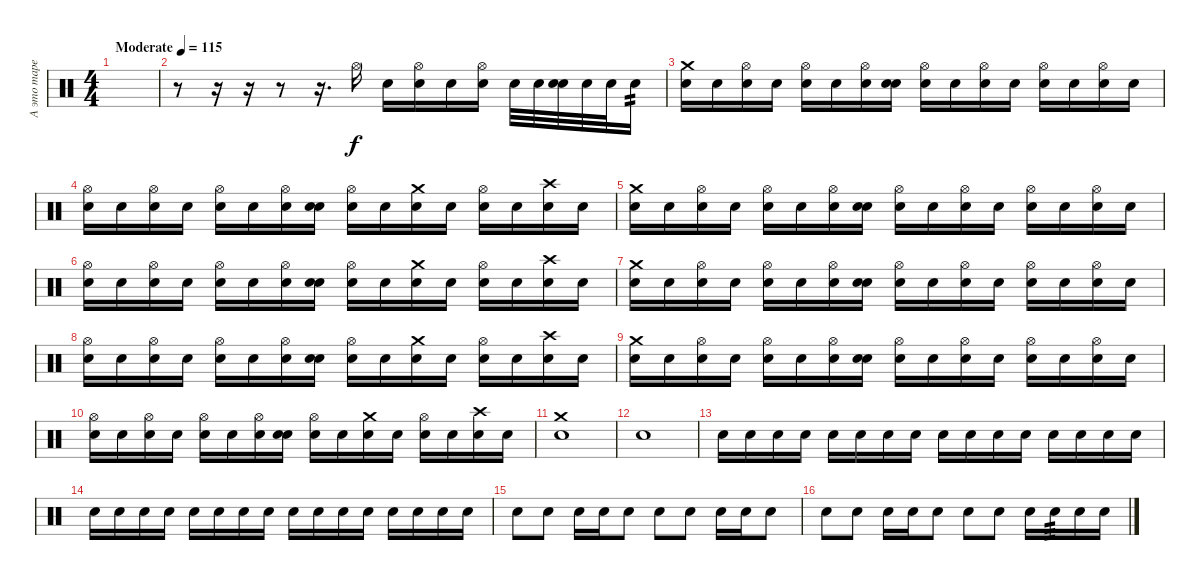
\track ("А это тарелки уже" "А это таре") {instrument percussion}
\staff {score}
\articulation defaults
\ts (4 4)
\tempo (115 "Moderate")
\clef neutral
\ks c
|
r.8 r.16 r.16 r.8 r.16{d} "Hi-Hat (open)".16 "Snare (hit)".16 ("Hi-Hat (open)" "Snare (hit)").16 "Snare (hit)".16 ("Hi-Hat (open)" "Snare (hit)").16 "Snare (hit)".32 "Snare (hit)".32 ("Snare (hit)" "Snare (hit)").32 "Snare (hit)".32 "Snare (hit)".32 "Snare (hit)".16{tp 2} |
("Crash medium (hit)" "Snare (hit)").16 "Snare (hit)".16 ("Hi-Hat (open)" "Snare (hit)").16 "Snare (hit)".16 ("Hi-Hat (open)" "Snare (hit)").16 "Snare (hit)".16 ("Hi-Hat (open)" "Snare (hit)").16 ("Snare (hit)" "Snare (hit)").16 ("Hi-Hat (open)" "Snare (hit)").16 "Snare (hit)".16 ("Hi-Hat (open)" "Snare (hit)").16 "Snare (hit)".16 ("Hi-Hat (open)" "Snare (hit)").16 "Snare (hit)".16 ("Hi-Hat (open)" "Snare (hit)").16 "Snare (hit)".16 |
("Hi-Hat (open)" "Snare (hit)").16 "Snare (hit)".16 ("Hi-Hat (open)" "Snare (hit)").16 "Snare (hit)".16 ("Hi-Hat (open)" "Snare (hit)").16 "Snare (hit)".16 ("Hi-Hat (open)" "Snare (hit)").16 ("Snare (hit)" "Snare (hit)").16 ("Hi-Hat (open)" "Snare (hit)").16 "Snare (hit)".16 ("Crash medium (hit)" "Snare (hit)").16 "Snare (hit)".16 ("Hi-Hat (open)" "Snare (hit)").16 "Snare (hit)".16 ("Crash high (hit)" "Snare (hit)").16 "Snare (hit)".16 |
("Crash medium (hit)" "Snare (hit)").16 "Snare (hit)".16 ("Hi-Hat (open)" "Snare (hit)").16 "Snare (hit)".16 ("Hi-Hat (open)" "Snare (hit)").16 "Snare (hit)".16 ("Hi-Hat (open)" "Snare (hit)").16 ("Snare (hit)" "Snare (hit)").16 ("Hi-Hat (open)" "Snare (hit)").16 "Snare (hit)".16 ("Hi-Hat (open)" "Snare (hit)").16 "Snare (hit)".16 ("Hi-Hat (open)" "Snare (hit)").16 "Snare (hit)".16 ("Hi-Hat (open)" "Snare (hit)").16 "Snare (hit)".16 |
("Hi-Hat (open)" "Snare (hit)").16 "Snare (hit)".16 ("Hi-Hat (open)" "Snare (hit)").16 "Snare (hit)".16 ("Hi-Hat (open)" "Snare (hit)").16 "Snare (hit)".16 ("Hi-Hat (open)" "Snare (hit)").16 ("Snare (hit)" "Snare (hit)").16 ("Hi-Hat (open)" "Snare (hit)").16 "Snare (hit)".16 ("Crash medium (hit)" "Snare (hit)").16 "Snare (hit)".16 ("Hi-Hat (open)" "Snare (hit)").16 "Snare (hit)".16 ("Crash high (hit)" "Snare (hit)").16 "Snare (hit)".16 |
("Crash medium (hit)" "Snare (hit)").16 "Snare (hit)".16 ("Hi-Hat (open)" "Snare (hit)").16 "Snare (hit)".16 ("Hi-Hat (open)" "Snare (hit)").16 "Snare (hit)".16 ("Hi-Hat (open)" "Snare (hit)").16 ("Snare (hit)" "Snare (hit)").16 ("Hi-Hat (open)" "Snare (hit)").16 "Snare (hit)".16 ("Hi-Hat (open)" "Snare (hit)").16 "Snare (hit)".16 ("Hi-Hat (open)" "Snare (hit)").16 "Snare (hit)".16 ("Hi-Hat (open)" "Snare (hit)").16 "Snare (hit)".16 |
("Hi-Hat (open)" "Snare (hit)").16 "Snare (hit)".16 ("Hi-Hat (open)" "Snare (hit)").16 "Snare (hit)".16 ("Hi-Hat (open)" "Snare (hit)").16 "Snare (hit)".16 ("Hi-Hat (open)" "Snare (hit)").16 ("Snare (hit)" "Snare (hit)").16 ("Hi-Hat (open)" "Snare (hit)").16 "Snare (hit)".16 ("Crash medium (hit)" "Snare (hit)").16 "Snare (hit)".16 ("Hi-Hat (open)" "Snare (hit)").16 "Snare (hit)".16 ("Crash high (hit)" "Snare (hit)").16 "Snare (hit)".16 |
("Crash medium (hit)" "Snare (hit)").16 "Snare (hit)".16 ("Hi-Hat (open)" "Snare (hit)").16 "Snare (hit)".16 ("Hi-Hat (open)" "Snare (hit)").16 "Snare (hit)".16 ("Hi-Hat (open)" "Snare (hit)").16 ("Snare (hit)" "Snare (hit)").16 ("Hi-Hat (open)" "Snare (hit)").16 "Snare (hit)".16 ("Hi-Hat (open)" "Snare (hit)").16 "Snare (hit)".16 ("Hi-Hat (open)" "Snare (hit)").16 "Snare (hit)".16 ("Hi-Hat (open)" "Snare (hit)").16 "Snare (hit)".16 |
("Hi-Hat (open)" "Snare (hit)").16 "Snare (hit)".16 ("Hi-Hat (open)" "Snare (hit)").16 "Snare (hit)".16 ("Hi-Hat (open)" "Snare (hit)").16 "Snare (hit)".16 ("Hi-Hat (open)" "Snare (hit)").16 ("Snare (hit)" "Snare (hit)").16 ("Hi-Hat (open)" "Snare (hit)").16 "Snare (hit)".16 ("Crash medium (hit)" "Snare (hit)").16 "Snare (hit)".16 ("Hi-Hat (open)" "Snare (hit)").16 "Snare (hit)".16 ("Crash high (hit)" "Snare (hit)").16 "Snare (hit)".16 |
("Crash medium (hit)" "Snare (hit)").1 |
"Snare (hit)".1 |
"Snare (hit)".16 "Snare (hit)".16 "Snare (hit)".16 "Snare (hit)".16 "Snare (hit)".16 "Snare (hit)".16 "Snare (hit)".16 "Snare (hit)".16 "Snare (hit)".16 "Snare (hit)".16 "Snare (hit)".16 "Snare (hit)".16 "Snare (hit)".16 "Snare (hit)".16 "Snare (hit)".16 "Snare (hit)".16 |
"Snare (hit)".16 "Snare (hit)".16 "Snare (hit)".16 "Snare (hit)".16 "Snare (hit)".16 "Snare (hit)".16 "Snare (hit)".16 "Snare (hit)".16 "Snare (hit)".16 "Snare (hit)".16 "Snare (hit)".16 "Snare (hit)".16 "Snare (hit)".16 "Snare (hit)".16 "Snare (hit)".16 "Snare (hit)".16 |
"Snare (hit)".8 "Snare (hit)".8 "Snare (hit)".16 "Snare (hit)".16 "Snare (hit)".8 "Snare (hit)".8 "Snare (hit)".8 "Snare (hit)".16 "Snare (hit)".16 "Snare (hit)".8 |
"Snare (hit)".8 "Snare (hit)".8 "Snare (hit)".16 "Snare (hit)".16 "Snare (hit)".8 "Snare (hit)".8 "Snare (hit)".8 "Snare (hit)".16 "Snare (hit)".16{tp 3} "Snare (hit)".16 "Snare (hit)".16
